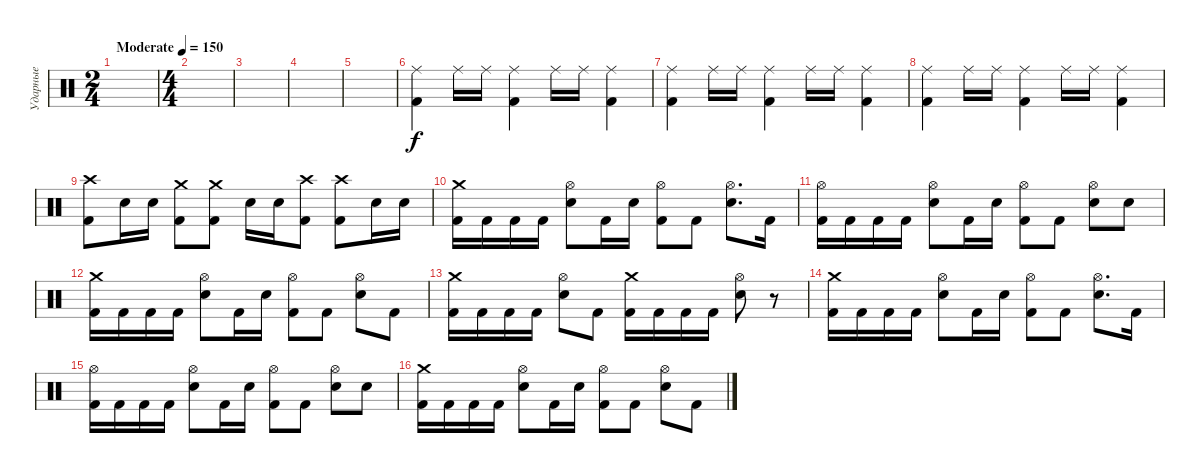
\track ("Ударные" "Ударные") {instrument percussion}
\staff {score}
\articulation defaults
\ts (2 4)
\tempo (150 "Moderate")
\clef neutral
\ks c
|
\ts (4 4)
|
|
|
|
("Ride (middle)" "Kick (hit) 2").4 "Ride (middle)".16 "Ride (middle)".16 ("Ride (middle)" "Kick (hit) 2").4 "Ride (middle)".16 "Ride (middle)".16 ("Ride (middle)" "Kick (hit) 2").4 |
("Ride (middle)" "Kick (hit) 2").4 "Ride (middle)".16 "Ride (middle)".16 ("Ride (middle)" "Kick (hit) 2").4 "Ride (middle)".16 "Ride (middle)".16 ("Ride (middle)" "Kick (hit) 2").4 |
("Ride (middle)" "Kick (hit) 2").4 "Ride (middle)".16 "Ride (middle)".16 ("Ride (middle)" "Kick (hit) 2").4 "Ride (middle)".16 "Ride (middle)".16 ("Ride (middle)" "Kick (hit) 2").4 |
("Crash high (hit)" "Kick (hit) 2").8 "Snare (hit) 2".16 "Snare (hit) 2".16 ("Crash medium (hit)" "Kick (hit) 2").8 ("Crash medium (hit)" "Kick (hit) 2").8 "Snare (hit) 2".16 "Snare (hit) 2".16 ("Crash high (hit)" "Kick (hit) 2").8 ("Crash high (hit)" "Kick (hit) 2").8 "Snare (hit) 2".16 "Snare (hit) 2".16 |
("Crash medium (hit)" "Kick (hit) 2").16 "Kick (hit) 2".16 "Kick (hit) 2".16 "Kick (hit) 2".16 ("Hi-Hat (open)" "Snare (hit) 2").8 "Kick (hit) 2".16 "Snare (hit) 2".16 ("Hi-Hat (open)" "Kick (hit) 2").8 "Kick (hit) 2".8 ("Hi-Hat (open)" "Snare (hit) 2").8{d} "Kick (hit) 2".16 |
("Hi-Hat (open)" "Kick (hit) 2").16 "Kick (hit) 2".16 "Kick (hit) 2".16 "Kick (hit) 2".16 ("Hi-Hat (open)" "Snare (hit) 2").8 "Kick (hit) 2".16 "Snare (hit) 2".16 ("Hi-Hat (open)" "Kick (hit) 2").8 "Kick (hit) 2".8 ("Hi-Hat (open)" "Snare (hit) 2").8 "Snare (hit) 2".8 |
("Crash medium (hit)" "Kick (hit) 2").16 "Kick (hit) 2".16 "Kick (hit) 2".16 "Kick (hit) 2".16 ("Hi-Hat (open)" "Snare (hit) 2").8 "Kick (hit) 2".16 "Snare (hit) 2".16 ("Hi-Hat (open)" "Kick (hit) 2").8 "Kick (hit) 2".8 ("Hi-Hat (open)" "Snare (hit) 2").8 "Kick (hit) 2".8 |
("Crash medium (hit)" "Kick (hit) 2").16 "Kick (hit) 2".16 "Kick (hit) 2".16 "Kick (hit) 2".16 ("Hi-Hat (open)" "Snare (hit) 2").8 "Kick (hit) 2".8 ("Crash medium (hit)" "Kick (hit) 2").16 "Kick (hit) 2".16 "Kick (hit) 2".16 "Kick (hit) 2".16 ("Hi-Hat (open)" "Snare (hit) 2").8 r.8 |
("Crash medium (hit)" "Kick (hit) 2").16 "Kick (hit) 2".16 "Kick (hit) 2".16 "Kick (hit) 2".16 ("Hi-Hat (open)" "Snare (hit) 2").8 "Kick (hit) 2".16 "Snare (hit) 2".16 ("Hi-Hat (open)" "Kick (hit) 2").8 "Kick (hit) 2".8 ("Hi-Hat (open)" "Snare (hit) 2").8{d} "Kick (hit) 2".16 |
("Hi-Hat (open)" "Kick (hit) 2").16 "Kick (hit) 2".16 "Kick (hit) 2".16 "Kick (hit) 2".16 ("Hi-Hat (open)" "Snare (hit) 2").8 "Kick (hit) 2".16 "Snare (hit) 2".16 ("Hi-Hat (open)" "Kick (hit) 2").8 "Kick (hit) 2".8 ("Hi-Hat (open)" "Snare (hit) 2").8 "Snare (hit) 2".8 |
("Crash medium (hit)" "Kick (hit) 2").16 "Kick (hit) 2".16 "Kick (hit) 2".16 "Kick (hit) 2".16 ("Hi-Hat (open)" "Snare (hit) 2").8 "Kick (hit) 2".16 "Snare (hit) 2".16 ("Hi-Hat (open)" "Kick (hit) 2").8 "Kick (hit) 2".8 ("Hi-Hat (open)" "Snare (hit) 2").8 "Kick (hit) 2".8
